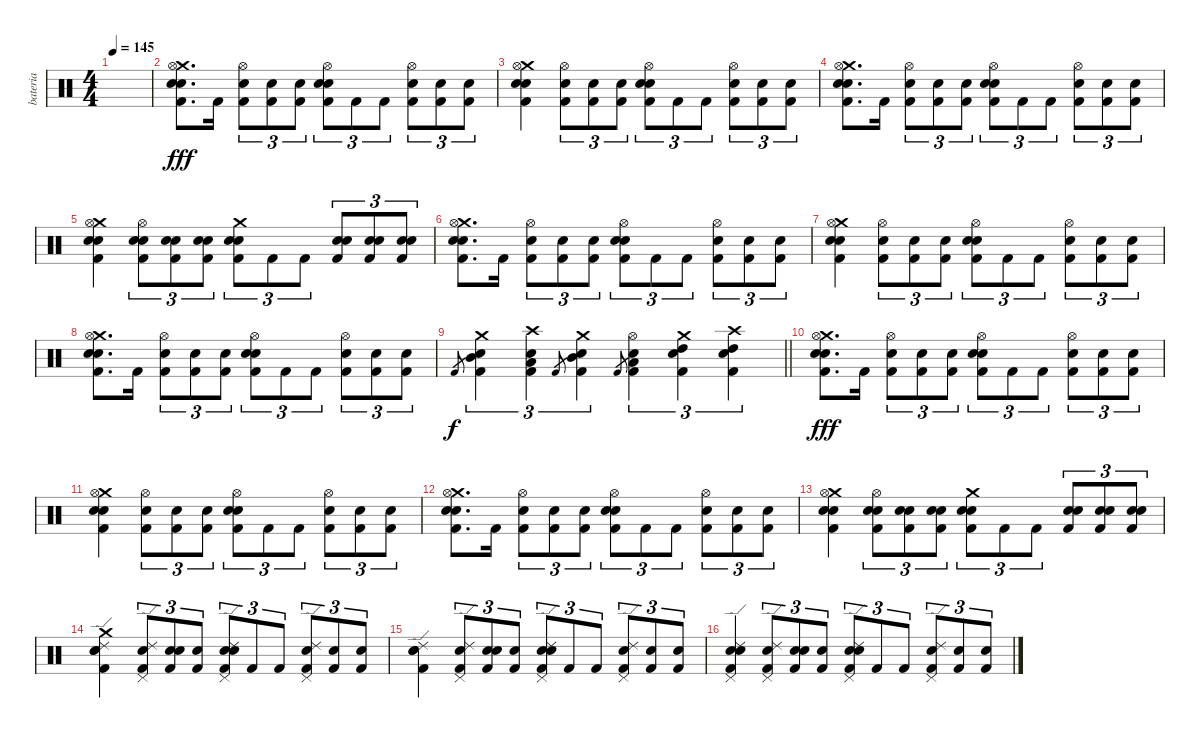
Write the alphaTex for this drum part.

\track ("bateria" "bateria") {instrument percussion}
\staff {score}
\articulation defaults
\ts (4 4)
\tempo 145
\clef neutral
\ks c
|
("Snare (hit)" "Kick (hit) 2" "Snare (hit) 2" "Crash medium (hit)" "Hi-Hat (open)").8{d dy fff} "Kick (hit) 2".16 ("Snare (hit)" "Kick (hit) 2" "Hi-Hat (open)").8{tu (3 2)} ("Snare (hit)" "Kick (hit) 2").8{tu (3 2)} ("Snare (hit)" "Kick (hit) 2").8{tu (3 2)} ("Snare (hit)" "Kick (hit) 2" "Snare (hit) 2" "Hi-Hat (open)").8{tu (3 2)} "Kick (hit) 2".8{tu (3 2)} "Kick (hit) 2".8{tu (3 2)} ("Snare (hit)" "Kick (hit) 2" "Hi-Hat (open)").8{tu (3 2)} ("Snare (hit)" "Kick (hit) 2").8{tu (3 2)} ("Snare (hit)" "Kick (hit) 2").8{tu (3 2)} |
("Snare (hit)" "Kick (hit) 2" "Snare (hit) 2" "Crash medium (hit)" "Hi-Hat (open)").4 ("Snare (hit)" "Kick (hit) 2" "Hi-Hat (open)").8{tu (3 2)} ("Snare (hit)" "Kick (hit) 2").8{tu (3 2)} ("Snare (hit)" "Kick (hit) 2").8{tu (3 2)} ("Snare (hit)" "Kick (hit) 2" "Snare (hit) 2" "Hi-Hat (open)").8{tu (3 2)} "Kick (hit) 2".8{tu (3 2)} "Kick (hit) 2".8{tu (3 2)} ("Snare (hit)" "Kick (hit) 2" "Hi-Hat (open)").8{tu (3 2)} ("Snare (hit)" "Kick (hit) 2").8{tu (3 2)} ("Snare (hit)" "Kick (hit) 2").8{tu (3 2)} |
("Snare (hit)" "Kick (hit) 2" "Snare (hit) 2" "Crash medium (hit)" "Hi-Hat (open)").8{d} "Kick (hit) 2".16 ("Snare (hit)" "Kick (hit) 2" "Hi-Hat (open)").8{tu (3 2)} ("Snare (hit)" "Kick (hit) 2").8{tu (3 2)} ("Snare (hit)" "Kick (hit) 2").8{tu (3 2)} ("Snare (hit)" "Kick (hit) 2" "Snare (hit) 2" "Hi-Hat (open)").8{tu (3 2)} "Kick (hit) 2".8{tu (3 2)} "Kick (hit) 2".8{tu (3 2)} ("Snare (hit)" "Kick (hit) 2" "Hi-Hat (open)").8{tu (3 2)} ("Snare (hit)" "Kick (hit) 2").8{tu (3 2)} ("Snare (hit)" "Kick (hit) 2").8{tu (3 2)} |
("Snare (hit)" "Kick (hit) 2" "Snare (hit) 2" "Crash medium (hit)" "Hi-Hat (open)").4 ("Snare (hit)" "Kick (hit) 2" "Snare (hit) 2" "Hi-Hat (open)").8{tu (3 2)} ("Snare (hit)" "Kick (hit) 2" "Snare (hit) 2").8{tu (3 2)} ("Snare (hit)" "Kick (hit) 2" "Snare (hit) 2").8{tu (3 2)} ("Snare (hit)" "Kick (hit) 2" "Snare (hit) 2" "Crash medium (hit)").8{tu (3 2)} "Kick (hit) 2".8{tu (3 2)} "Kick (hit) 2".8{tu (3 2)} ("Snare (hit)" "Kick (hit) 2" "Snare (hit) 2").8{tu (3 2)} ("Snare (hit)" "Kick (hit) 2" "Snare (hit) 2").8{tu (3 2)} ("Snare (hit)" "Kick (hit) 2" "Snare (hit) 2").8{tu (3 2)} |
("Snare (hit)" "Kick (hit) 2" "Snare (hit) 2" "Crash medium (hit)" "Hi-Hat (open)").8{d} "Kick (hit) 2".16 ("Snare (hit)" "Kick (hit) 2" "Hi-Hat (open)").8{tu (3 2)} ("Snare (hit)" "Kick (hit) 2").8{tu (3 2)} ("Snare (hit)" "Kick (hit) 2").8{tu (3 2)} ("Snare (hit)" "Kick (hit) 2" "Snare (hit) 2" "Hi-Hat (open)").8{tu (3 2)} "Kick (hit) 2".8{tu (3 2)} "Kick (hit) 2".8{tu (3 2)} ("Snare (hit)" "Kick (hit) 2" "Hi-Hat (open)").8{tu (3 2)} ("Snare (hit)" "Kick (hit) 2").8{tu (3 2)} ("Snare (hit)" "Kick (hit) 2").8{tu (3 2)} |
("Snare (hit)" "Kick (hit) 2" "Snare (hit) 2" "Crash medium (hit)" "Hi-Hat (open)").4 ("Snare (hit)" "Kick (hit) 2" "Hi-Hat (open)").8{tu (3 2)} ("Snare (hit)" "Kick (hit) 2").8{tu (3 2)} ("Snare (hit)" "Kick (hit) 2").8{tu (3 2)} ("Snare (hit)" "Kick (hit) 2" "Snare (hit) 2" "Hi-Hat (open)").8{tu (3 2)} "Kick (hit) 2".8{tu (3 2)} "Kick (hit) 2".8{tu (3 2)} ("Snare (hit)" "Kick (hit) 2" "Hi-Hat (open)").8{tu (3 2)} ("Snare (hit)" "Kick (hit) 2").8{tu (3 2)} ("Snare (hit)" "Kick (hit) 2").8{tu (3 2)} |
("Snare (hit)" "Kick (hit) 2" "Snare (hit) 2" "Crash medium (hit)" "Hi-Hat (open)").8{d} "Kick (hit) 2".16 ("Snare (hit)" "Kick (hit) 2" "Hi-Hat (open)").8{tu (3 2)} ("Snare (hit)" "Kick (hit) 2").8{tu (3 2)} ("Snare (hit)" "Kick (hit) 2").8{tu (3 2)} ("Snare (hit)" "Kick (hit) 2" "Snare (hit) 2" "Hi-Hat (open)").8{tu (3 2)} "Kick (hit) 2".8{tu (3 2)} "Kick (hit) 2".8{tu (3 2)} ("Snare (hit)" "Kick (hit) 2" "Hi-Hat (open)").8{tu (3 2)} ("Snare (hit)" "Kick (hit) 2").8{tu (3 2)} ("Snare (hit)" "Kick (hit) 2").8{tu (3 2)} |
\barLineRight lightlight "Kick (hit) 2".8{gr dy f}
("Kick (hit) 2" "Crash medium (hit)" "Mid Tom (hit)" "Snare (hit) 2").4{tu (3 2)} ("Kick (hit) 2" "Crash high (hit)" "Low Tom (hit)" "Snare (hit) 2").4{tu (3 2)} "Kick (hit) 2".8{gr} ("Kick (hit) 2" "Crash medium (hit)" "Mid Tom (hit)" "Snare (hit) 2").4{tu (3 2)} "Kick (hit) 2".8{gr} ("Kick (hit) 2" "Hi-Hat (open)" "Low Tom (hit)" "Snare (hit) 2").4{tu (3 2)} ("Kick (hit) 2" "Crash medium (hit)" "High Tom (hit)" "Snare (hit) 2").4{tu (3 2)} ("Kick (hit) 2" "Crash high (hit)" "High Tom (hit)" "Snare (hit) 2").4{tu (3 2)} |
("Snare (hit)" "Kick (hit) 2" "Snare (hit) 2" "Crash medium (hit)" "Hi-Hat (open)").8{d dy fff} "Kick (hit) 2".16 ("Snare (hit)" "Kick (hit) 2" "Hi-Hat (open)").8{tu (3 2)} ("Snare (hit)" "Kick (hit) 2").8{tu (3 2)} ("Snare (hit)" "Kick (hit) 2").8{tu (3 2)} ("Snare (hit)" "Kick (hit) 2" "Snare (hit) 2" "Hi-Hat (open)").8{tu (3 2)} "Kick (hit) 2".8{tu (3 2)} "Kick (hit) 2".8{tu (3 2)} ("Snare (hit)" "Kick (hit) 2" "Hi-Hat (open)").8{tu (3 2)} ("Snare (hit)" "Kick (hit) 2").8{tu (3 2)} ("Snare (hit)" "Kick (hit) 2").8{tu (3 2)} |
("Snare (hit)" "Kick (hit) 2" "Snare (hit) 2" "Crash medium (hit)" "Hi-Hat (open)").4 ("Snare (hit)" "Kick (hit) 2" "Hi-Hat (open)").8{tu (3 2)} ("Snare (hit)" "Kick (hit) 2").8{tu (3 2)} ("Snare (hit)" "Kick (hit) 2").8{tu (3 2)} ("Snare (hit)" "Kick (hit) 2" "Snare (hit) 2" "Hi-Hat (open)").8{tu (3 2)} "Kick (hit) 2".8{tu (3 2)} "Kick (hit) 2".8{tu (3 2)} ("Snare (hit)" "Kick (hit) 2" "Hi-Hat (open)").8{tu (3 2)} ("Snare (hit)" "Kick (hit) 2").8{tu (3 2)} ("Snare (hit)" "Kick (hit) 2").8{tu (3 2)} |
("Snare (hit)" "Kick (hit) 2" "Snare (hit) 2" "Crash medium (hit)" "Hi-Hat (open)").8{d} "Kick (hit) 2".16 ("Snare (hit)" "Kick (hit) 2" "Hi-Hat (open)").8{tu (3 2)} ("Snare (hit)" "Kick (hit) 2").8{tu (3 2)} ("Snare (hit)" "Kick (hit) 2").8{tu (3 2)} ("Snare (hit)" "Kick (hit) 2" "Snare (hit) 2" "Hi-Hat (open)").8{tu (3 2)} "Kick (hit) 2".8{tu (3 2)} "Kick (hit) 2".8{tu (3 2)} ("Snare (hit)" "Kick (hit) 2" "Hi-Hat (open)").8{tu (3 2)} ("Snare (hit)" "Kick (hit) 2").8{tu (3 2)} ("Snare (hit)" "Kick (hit) 2").8{tu (3 2)} |
("Snare (hit)" "Kick (hit) 2" "Snare (hit) 2" "Crash medium (hit)" "Hi-Hat (open)").4 ("Snare (hit)" "Kick (hit) 2" "Snare (hit) 2" "Hi-Hat (open)").8{tu (3 2)} ("Snare (hit)" "Kick (hit) 2" "Snare (hit) 2").8{tu (3 2)} ("Snare (hit)" "Kick (hit) 2" "Snare (hit) 2").8{tu (3 2)} ("Snare (hit)" "Kick (hit) 2" "Snare (hit) 2" "Crash medium (hit)").8{tu (3 2)} "Kick (hit) 2".8{tu (3 2)} "Kick (hit) 2".8{tu (3 2)} ("Snare (hit)" "Kick (hit) 2" "Snare (hit) 2").8{tu (3 2)} ("Snare (hit)" "Kick (hit) 2" "Snare (hit) 2").8{tu (3 2)} ("Snare (hit)" "Kick (hit) 2" "Snare (hit) 2").8{tu (3 2)} |
("Snare (hit)" "Kick (hit) 2" "Snare (hit) 2" "Crash medium (hit)" "Ride (edge) 2").4 ("Snare (hit)" "Kick (hit) 2" "Ride (edge) 2" "Pedal Hi-Hat (hit)").8{tu (3 2)} ("Snare (hit)" "Kick (hit) 2" "Snare (hit)").8{tu (3 2)} ("Snare (hit)" "Kick (hit) 2").8{tu (3 2)} ("Snare (hit)" "Kick (hit) 2" "Snare (hit) 2" "Ride (edge) 2" "Pedal Hi-Hat (hit)").8{tu (3 2)} "Kick (hit) 2".8{tu (3 2)} "Kick (hit) 2".8{tu (3 2)} ("Snare (hit)" "Kick (hit) 2" "Ride (edge) 2" "Pedal Hi-Hat (hit)").8{tu (3 2)} ("Snare (hit)" "Kick (hit) 2").8{tu (3 2)} ("Snare (hit)" "Kick (hit) 2").8{tu (3 2)} |
("Snare (hit)" "Kick (hit) 2" "Snare (hit) 2" "Ride (edge) 2").4 ("Snare (hit)" "Kick (hit) 2" "Ride (edge) 2" "Pedal Hi-Hat (hit)").8{tu (3 2)} ("Snare (hit)" "Kick (hit) 2" "Snare (hit)").8{tu (3 2)} ("Snare (hit)" "Kick (hit) 2").8{tu (3 2)} ("Snare (hit)" "Kick (hit) 2" "Snare (hit) 2" "Ride (edge) 2" "Pedal Hi-Hat (hit)").8{tu (3 2)} "Kick (hit) 2".8{tu (3 2)} "Kick (hit) 2".8{tu (3 2)} ("Snare (hit)" "Kick (hit) 2" "Ride (edge) 2" "Pedal Hi-Hat (hit)").8{tu (3 2)} ("Snare (hit)" "Kick (hit) 2").8{tu (3 2)} ("Snare (hit)" "Kick (hit) 2").8{tu (3 2)} |
("Snare (hit)" "Kick (hit) 2" "Snare (hit) 2" "Ride (edge) 2" "Pedal Hi-Hat (hit)").4 ("Snare (hit)" "Kick (hit) 2" "Ride (edge) 2" "Pedal Hi-Hat (hit)").8{tu (3 2)} ("Snare (hit)" "Kick (hit) 2" "Snare (hit)").8{tu (3 2)} ("Snare (hit)" "Kick (hit) 2").8{tu (3 2)} ("Snare (hit)" "Kick (hit) 2" "Snare (hit) 2" "Ride (edge) 2" "Pedal Hi-Hat (hit)").8{tu (3 2)} "Kick (hit) 2".8{tu (3 2)} "Kick (hit) 2".8{tu (3 2)} ("Snare (hit)" "Kick (hit) 2" "Ride (edge) 2" "Pedal Hi-Hat (hit)").8{tu (3 2)} ("Snare (hit)" "Kick (hit) 2").8{tu (3 2)} ("Snare (hit)" "Kick (hit) 2").8{tu (3 2)}
